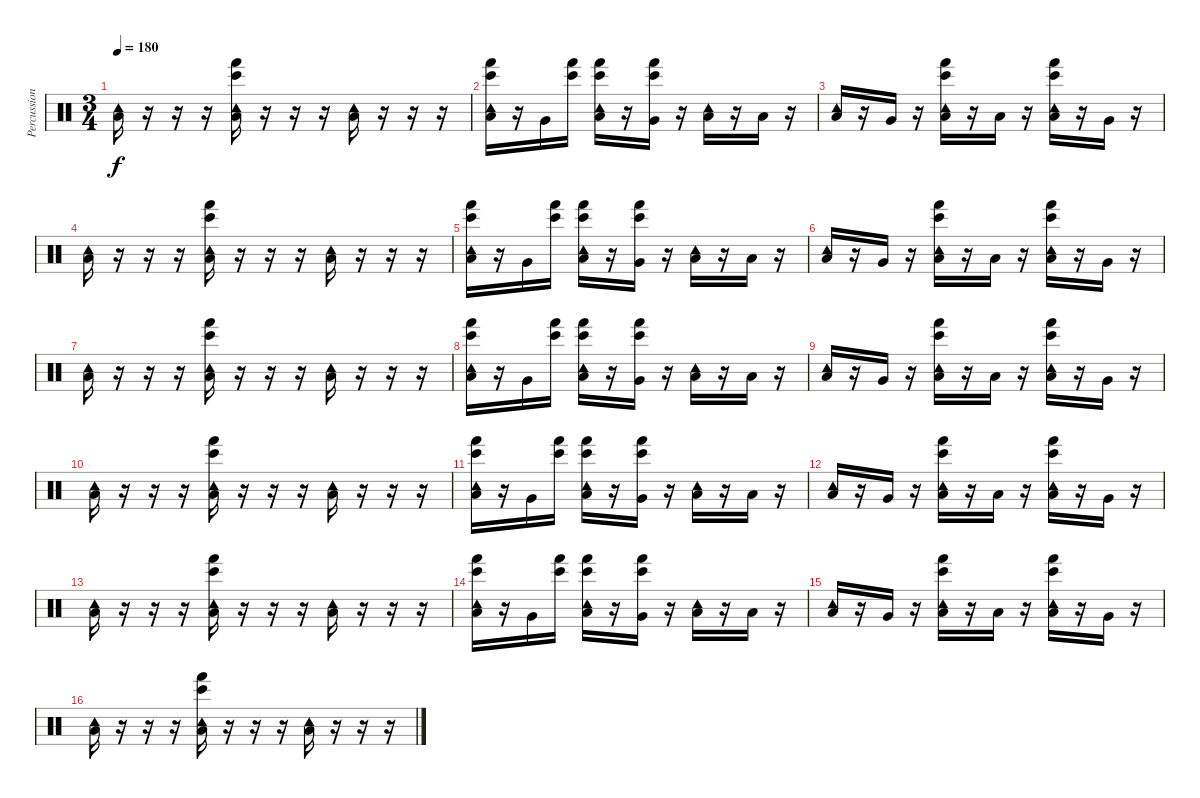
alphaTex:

\track ("Percussion" "Percussion") {instrument percussion}
\staff {score}
\articulation defaults
\ts (3 4)
\tempo 180
\clef neutral
\ks c
("Tambourine (hit)" "Low Floor Tom (hit)").16{dy f} r.16 r.16 r.16 ("Tambourine (hit)" "Hand (hit)" "Bongo High (hit)" "Low Floor Tom (hit)").16 r.16 r.16 r.16 ("Tambourine (hit)" "Low Floor Tom (hit)").16 r.16 r.16 r.16 |
("Tambourine (hit)" "Hand (hit)" "Bongo High (hit)" "Low Floor Tom (hit)").16 r.16 "Very Low Tom (hit)".16 ("Hand (hit)" "Bongo High (hit)").16 ("Tambourine (hit)" "Hand (hit)" "Bongo High (hit)" "Low Floor Tom (hit)").16 r.16 ("Hand (hit)" "Bongo High (hit)" "Very Low Tom (hit)").16 r.16 ("Tambourine (hit)" "Low Floor Tom (hit)").16 r.16 "Low Floor Tom (hit)".16 r.16 |
("Tambourine (hit)" "Low Floor Tom (hit)").16 r.16 "Very Low Tom (hit)".16 r.16 ("Tambourine (hit)" "Hand (hit)" "Bongo High (hit)" "Low Floor Tom (hit)").16 r.16 "Low Floor Tom (hit)".16 r.16 ("Tambourine (hit)" "Hand (hit)" "Bongo High (hit)" "Low Floor Tom (hit)").16 r.16 "Very Low Tom (hit)".16 r.16 |
("Tambourine (hit)" "Low Floor Tom (hit)").16 r.16 r.16 r.16 ("Tambourine (hit)" "Hand (hit)" "Bongo High (hit)" "Low Floor Tom (hit)").16 r.16 r.16 r.16 ("Tambourine (hit)" "Low Floor Tom (hit)").16 r.16 r.16 r.16 |
("Tambourine (hit)" "Hand (hit)" "Bongo High (hit)" "Low Floor Tom (hit)").16 r.16 "Very Low Tom (hit)".16 ("Hand (hit)" "Bongo High (hit)").16 ("Tambourine (hit)" "Hand (hit)" "Bongo High (hit)" "Low Floor Tom (hit)").16 r.16 ("Hand (hit)" "Bongo High (hit)" "Very Low Tom (hit)").16 r.16 ("Tambourine (hit)" "Low Floor Tom (hit)").16 r.16 "Low Floor Tom (hit)".16 r.16 |
("Tambourine (hit)" "Low Floor Tom (hit)").16 r.16 "Very Low Tom (hit)".16 r.16 ("Tambourine (hit)" "Hand (hit)" "Bongo High (hit)" "Low Floor Tom (hit)").16 r.16 "Low Floor Tom (hit)".16 r.16 ("Tambourine (hit)" "Hand (hit)" "Bongo High (hit)" "Low Floor Tom (hit)").16 r.16 "Very Low Tom (hit)".16 r.16 |
("Tambourine (hit)" "Low Floor Tom (hit)").16 r.16 r.16 r.16 ("Tambourine (hit)" "Hand (hit)" "Bongo High (hit)" "Low Floor Tom (hit)").16 r.16 r.16 r.16 ("Tambourine (hit)" "Low Floor Tom (hit)").16 r.16 r.16 r.16 |
("Tambourine (hit)" "Hand (hit)" "Bongo High (hit)" "Low Floor Tom (hit)").16 r.16 "Very Low Tom (hit)".16 ("Hand (hit)" "Bongo High (hit)").16 ("Tambourine (hit)" "Hand (hit)" "Bongo High (hit)" "Low Floor Tom (hit)").16 r.16 ("Hand (hit)" "Bongo High (hit)" "Very Low Tom (hit)").16 r.16 ("Tambourine (hit)" "Low Floor Tom (hit)").16 r.16 "Low Floor Tom (hit)".16 r.16 |
("Tambourine (hit)" "Low Floor Tom (hit)").16 r.16 "Very Low Tom (hit)".16 r.16 ("Tambourine (hit)" "Hand (hit)" "Bongo High (hit)" "Low Floor Tom (hit)").16 r.16 "Low Floor Tom (hit)".16 r.16 ("Tambourine (hit)" "Hand (hit)" "Bongo High (hit)" "Low Floor Tom (hit)").16 r.16 "Very Low Tom (hit)".16 r.16 |
("Tambourine (hit)" "Low Floor Tom (hit)").16 r.16 r.16 r.16 ("Tambourine (hit)" "Hand (hit)" "Bongo High (hit)" "Low Floor Tom (hit)").16 r.16 r.16 r.16 ("Tambourine (hit)" "Low Floor Tom (hit)").16 r.16 r.16 r.16 |
("Tambourine (hit)" "Hand (hit)" "Bongo High (hit)" "Low Floor Tom (hit)").16 r.16 "Very Low Tom (hit)".16 ("Hand (hit)" "Bongo High (hit)").16 ("Tambourine (hit)" "Hand (hit)" "Bongo High (hit)" "Low Floor Tom (hit)").16 r.16 ("Hand (hit)" "Bongo High (hit)" "Very Low Tom (hit)").16 r.16 ("Tambourine (hit)" "Low Floor Tom (hit)").16 r.16 "Low Floor Tom (hit)".16 r.16 |
("Tambourine (hit)" "Low Floor Tom (hit)").16 r.16 "Very Low Tom (hit)".16 r.16 ("Tambourine (hit)" "Hand (hit)" "Bongo High (hit)" "Low Floor Tom (hit)").16 r.16 "Low Floor Tom (hit)".16 r.16 ("Tambourine (hit)" "Hand (hit)" "Bongo High (hit)" "Low Floor Tom (hit)").16 r.16 "Very Low Tom (hit)".16 r.16 |
("Tambourine (hit)" "Low Floor Tom (hit)").16 r.16 r.16 r.16 ("Tambourine (hit)" "Hand (hit)" "Bongo High (hit)" "Low Floor Tom (hit)").16 r.16 r.16 r.16 ("Tambourine (hit)" "Low Floor Tom (hit)").16 r.16 r.16 r.16 |
("Tambourine (hit)" "Hand (hit)" "Bongo High (hit)" "Low Floor Tom (hit)").16 r.16 "Very Low Tom (hit)".16 ("Hand (hit)" "Bongo High (hit)").16 ("Tambourine (hit)" "Hand (hit)" "Bongo High (hit)" "Low Floor Tom (hit)").16 r.16 ("Hand (hit)" "Bongo High (hit)" "Very Low Tom (hit)").16 r.16 ("Tambourine (hit)" "Low Floor Tom (hit)").16 r.16 "Low Floor Tom (hit)".16 r.16 |
("Tambourine (hit)" "Low Floor Tom (hit)").16 r.16 "Very Low Tom (hit)".16 r.16 ("Tambourine (hit)" "Hand (hit)" "Bongo High (hit)" "Low Floor Tom (hit)").16 r.16 "Low Floor Tom (hit)".16 r.16 ("Tambourine (hit)" "Hand (hit)" "Bongo High (hit)" "Low Floor Tom (hit)").16 r.16 "Very Low Tom (hit)".16 r.16 |
("Tambourine (hit)" "Low Floor Tom (hit)").16 r.16 r.16 r.16 ("Tambourine (hit)" "Hand (hit)" "Bongo High (hit)" "Low Floor Tom (hit)").16 r.16 r.16 r.16 ("Tambourine (hit)" "Low Floor Tom (hit)").16 r.16 r.16 r.16
